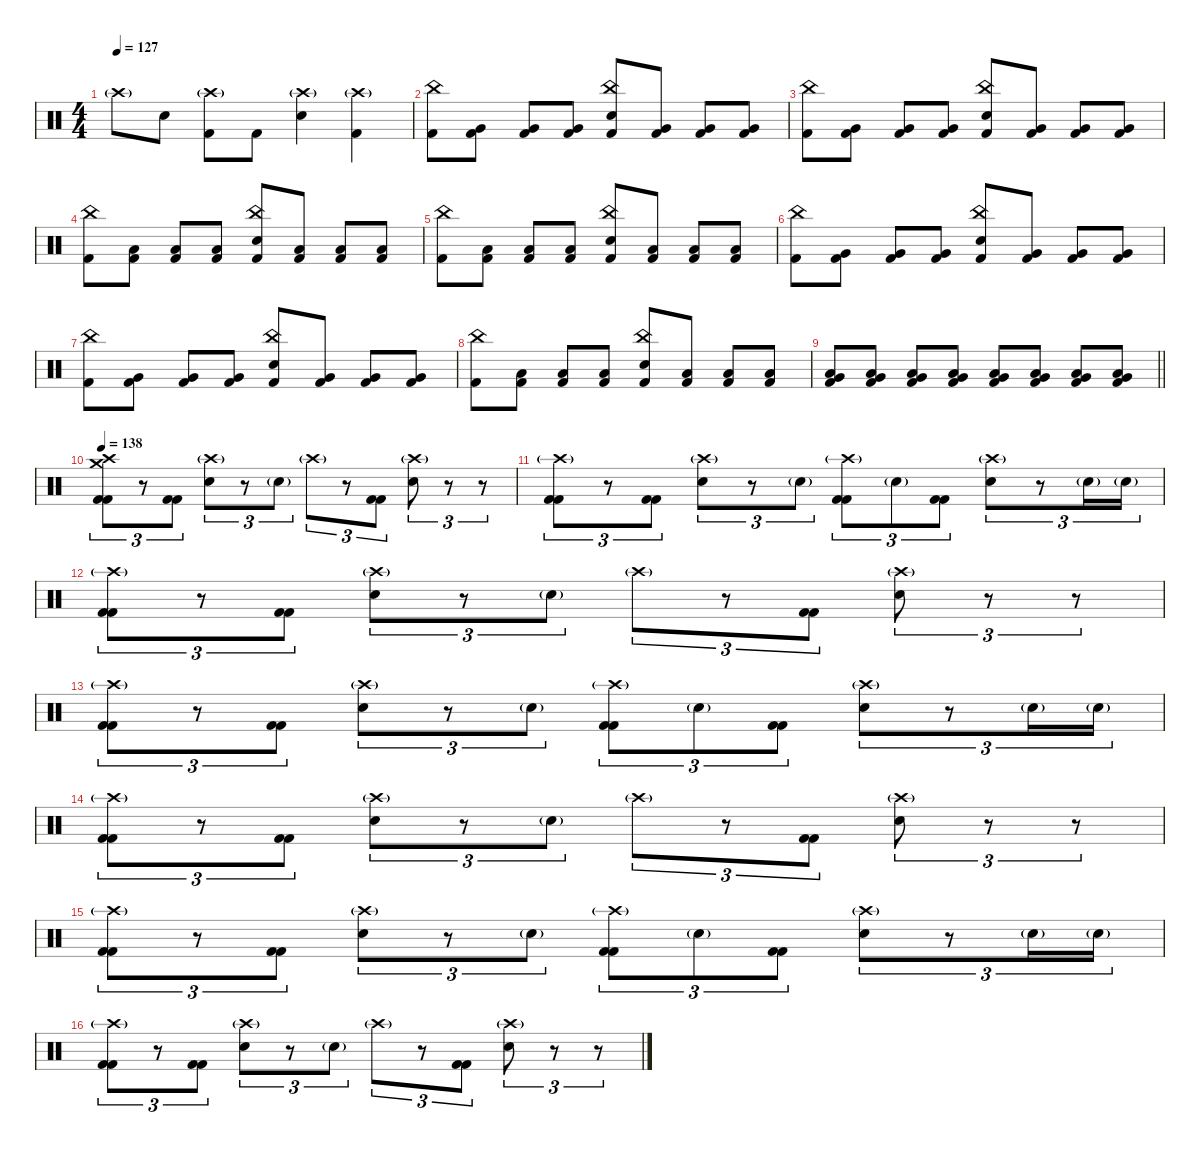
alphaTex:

\defaultSystemsLayout 4
\hideDynamics
\bracketExtendMode nobrackets
\singleTrackTrackNamePolicy hidden
\multiTrackTrackNamePolicy hidden
\otherSystemsTrackNameOrientation horizontal
\track ("Gene Hoglan" "drm.") {instrument percussion}
\staff {score}
\articulation defaults
\ts (4 4)
\tempo 127
\clef neutral
\ks c "Crash high (hit)"{g}.8{dy mf beam Down} "Snare (hit) 2".8{dy f beam Down}
("Crash high (hit)"{g} "Kick (hit) 2").8{beam Down} "Kick (hit) 2".8{beam Down} ("Crash high (hit)"{g} "Snare (hit) 2").4{beam Down} ("Crash high (hit)"{g} "Kick (hit) 2").4{beam Down} |
("China (hit)" "Kick (hit) 2").8{beam Down} ("Very Low Tom (hit)" "Kick (hit) 2").8{beam Down} ("Very Low Tom (hit)" "Kick (hit) 2").8{beam Up} ("Very Low Tom (hit)" "Kick (hit) 2").8{beam Up} ("China (hit)" "Snare (hit) 2" "Kick (hit) 2").8{beam Up} ("Very Low Tom (hit)" "Kick (hit) 2").8{beam Up} ("Very Low Tom (hit)" "Kick (hit) 2").8{beam Up} ("Very Low Tom (hit)" "Kick (hit) 2").8{beam Up} |
("China (hit)" "Kick (hit) 2").8{beam Down} ("Very Low Tom (hit)" "Kick (hit) 2").8{beam Down} ("Very Low Tom (hit)" "Kick (hit) 2").8{beam Up} ("Very Low Tom (hit)" "Kick (hit) 2").8{beam Up} ("China (hit)" "Snare (hit) 2" "Kick (hit) 2").8{beam Up} ("Very Low Tom (hit)" "Kick (hit) 2").8{beam Up} ("Very Low Tom (hit)" "Kick (hit) 2").8{beam Up} ("Very Low Tom (hit)" "Kick (hit) 2").8{beam Up} |
("China (hit)" "Kick (hit) 2").8{beam Down} ("Low Floor Tom (hit)" "Kick (hit) 2").8{beam Down} ("Low Floor Tom (hit)" "Kick (hit) 2").8{beam Up} ("Low Floor Tom (hit)" "Kick (hit) 2").8{beam Up} ("China (hit)" "Snare (hit) 2" "Kick (hit) 2").8{beam Up} ("Low Floor Tom (hit)" "Kick (hit) 2").8{beam Up} ("Low Floor Tom (hit)" "Kick (hit) 2").8{beam Up} ("Low Floor Tom (hit)" "Kick (hit) 2").8{beam Up} |
("China (hit)" "Kick (hit) 2").8{beam Down} ("Low Floor Tom (hit)" "Kick (hit) 2").8{beam Down} ("Low Floor Tom (hit)" "Kick (hit) 2").8{beam Up} ("Low Floor Tom (hit)" "Kick (hit) 2").8{beam Up} ("China (hit)" "Snare (hit) 2" "Kick (hit) 2").8{beam Up} ("Low Floor Tom (hit)" "Kick (hit) 2").8{beam Up} ("Low Floor Tom (hit)" "Kick (hit) 2").8{beam Up} ("Low Floor Tom (hit)" "Kick (hit) 2").8{beam Up} |
("China (hit)" "Kick (hit) 2").8{beam Down} ("Very Low Tom (hit)" "Kick (hit) 2").8{beam Down} ("Very Low Tom (hit)" "Kick (hit) 2").8{beam Up} ("Very Low Tom (hit)" "Kick (hit) 2").8{beam Up} ("China (hit)" "Snare (hit) 2" "Kick (hit) 2").8{beam Up} ("Very Low Tom (hit)" "Kick (hit) 2").8{beam Up} ("Very Low Tom (hit)" "Kick (hit) 2").8{beam Up} ("Very Low Tom (hit)" "Kick (hit) 2").8{beam Up} |
("China (hit)" "Kick (hit) 2").8{beam Down} ("Very Low Tom (hit)" "Kick (hit) 2").8{beam Down} ("Very Low Tom (hit)" "Kick (hit) 2").8{beam Up} ("Very Low Tom (hit)" "Kick (hit) 2").8{beam Up} ("China (hit)" "Snare (hit) 2" "Kick (hit) 2").8{beam Up} ("Very Low Tom (hit)" "Kick (hit) 2").8{beam Up} ("Very Low Tom (hit)" "Kick (hit) 2").8{beam Up} ("Very Low Tom (hit)" "Kick (hit) 2").8{beam Up} |
("China (hit)" "Kick (hit) 2").8{beam Down} ("Low Floor Tom (hit)" "Kick (hit) 2").8{beam Down} ("Low Floor Tom (hit)" "Kick (hit) 2").8{beam Up} ("Low Floor Tom (hit)" "Kick (hit) 2").8{beam Up} ("China (hit)" "Snare (hit) 2" "Kick (hit) 2").8{beam Up} ("Low Floor Tom (hit)" "Kick (hit) 2").8{beam Up} ("Low Floor Tom (hit)" "Kick (hit) 2").8{beam Up} ("Low Floor Tom (hit)" "Kick (hit) 2").8{beam Up} |
\barLineRight lightlight
("Very Low Tom (hit)" "Low Floor Tom (hit)" "Kick (hit) 2").8{beam Up} ("Very Low Tom (hit)" "Low Floor Tom (hit)" "Kick (hit) 2").8{beam Up} ("Very Low Tom (hit)" "Low Floor Tom (hit)" "Kick (hit) 2").8{beam Up} ("Very Low Tom (hit)" "Low Floor Tom (hit)" "Kick (hit) 2").8{beam Up} ("Very Low Tom (hit)" "Low Floor Tom (hit)" "Kick (hit) 2").8{beam Up} ("Very Low Tom (hit)" "Low Floor Tom (hit)" "Kick (hit) 2").8{beam Up} ("Very Low Tom (hit)" "Low Floor Tom (hit)" "Kick (hit) 2").8{beam Up} ("Very Low Tom (hit)" "Low Floor Tom (hit)" "Kick (hit) 2").8{beam Up} |
\tempo 138
("Crash high (hit)" "Crash medium (hit)" "Kick (hit) 2" "Kick (hit) 2").8{tu (3 2) beam Down} r.8{tu (3 2) beam Down} ("Kick (hit) 2" "Kick (hit) 2").8{tu (3 2) beam Down} ("Crash high (hit)"{g} "Snare (hit) 2").8{tu (3 2) beam Down} r.8{tu (3 2) beam Down} "Snare (hit) 2"{g}.8{tu (3 2) dy mf beam Down} "Crash high (hit)"{g}.8{tu (3 2) beam Down} r.8{tu (3 2) beam Down} ("Kick (hit) 2" "Kick (hit) 2").8{tu (3 2) dy f beam Down} ("Crash high (hit)"{g} "Snare (hit) 2").8{tu (3 2) beam Down} r.8{tu (3 2) beam Down} r.8{tu (3 2) beam Down} |
("Crash high (hit)"{g} "Kick (hit) 2" "Kick (hit) 2").8{tu (3 2) beam Down} r.8{tu (3 2) beam Down} ("Kick (hit) 2" "Kick (hit) 2").8{tu (3 2) beam Down} ("Crash high (hit)"{g} "Snare (hit) 2").8{tu (3 2) beam Down} r.8{tu (3 2) beam Down} "Snare (hit) 2"{g}.8{tu (3 2) dy mf beam Down} ("Crash high (hit)"{g} "Kick (hit) 2" "Kick (hit) 2").8{tu (3 2) dy f beam Down} "Snare (hit) 2"{g}.8{tu (3 2) dy mf beam Down} ("Kick (hit) 2" "Kick (hit) 2").8{tu (3 2) dy f beam Down} ("Crash high (hit)"{g} "Snare (hit) 2").8{tu (3 2) beam Down} r.8{tu (3 2) beam Down} "Snare (hit) 2"{g}.16{tu (3 2) dy mf beam Down} "Snare (hit) 2"{g}.16{tu (3 2) beam Down} |
("Crash high (hit)"{g} "Kick (hit) 2" "Kick (hit) 2").8{tu (3 2) dy f beam Down} r.8{tu (3 2) beam Down} ("Kick (hit) 2" "Kick (hit) 2").8{tu (3 2) beam Down} ("Crash high (hit)"{g} "Snare (hit) 2").8{tu (3 2) beam Down} r.8{tu (3 2) beam Down} "Snare (hit) 2"{g}.8{tu (3 2) dy mf beam Down} "Crash high (hit)"{g}.8{tu (3 2) beam Down} r.8{tu (3 2) beam Down} ("Kick (hit) 2" "Kick (hit) 2").8{tu (3 2) dy f beam Down} ("Crash high (hit)"{g} "Snare (hit) 2").8{tu (3 2) beam Down} r.8{tu (3 2) beam Down} r.8{tu (3 2) beam Down} |
("Crash high (hit)"{g} "Kick (hit) 2" "Kick (hit) 2").8{tu (3 2) beam Down} r.8{tu (3 2) beam Down} ("Kick (hit) 2" "Kick (hit) 2").8{tu (3 2) beam Down} ("Crash high (hit)"{g} "Snare (hit) 2").8{tu (3 2) beam Down} r.8{tu (3 2) beam Down} "Snare (hit) 2"{g}.8{tu (3 2) dy mf beam Down} ("Crash high (hit)"{g} "Kick (hit) 2" "Kick (hit) 2").8{tu (3 2) dy f beam Down} "Snare (hit) 2"{g}.8{tu (3 2) dy mf beam Down} ("Kick (hit) 2" "Kick (hit) 2").8{tu (3 2) dy f beam Down} ("Crash high (hit)"{g} "Snare (hit) 2").8{tu (3 2) beam Down} r.8{tu (3 2) beam Down} "Snare (hit) 2"{g}.16{tu (3 2) dy mf beam Down} "Snare (hit) 2"{g}.16{tu (3 2) beam Down} |
("Crash high (hit)"{g} "Kick (hit) 2" "Kick (hit) 2").8{tu (3 2) dy f beam Down} r.8{tu (3 2) beam Down} ("Kick (hit) 2" "Kick (hit) 2").8{tu (3 2) beam Down} ("Crash high (hit)"{g} "Snare (hit) 2").8{tu (3 2) beam Down} r.8{tu (3 2) beam Down} "Snare (hit) 2"{g}.8{tu (3 2) dy mf beam Down} "Crash high (hit)"{g}.8{tu (3 2) beam Down} r.8{tu (3 2) beam Down} ("Kick (hit) 2" "Kick (hit) 2").8{tu (3 2) dy f beam Down} ("Crash high (hit)"{g} "Snare (hit) 2").8{tu (3 2) beam Down} r.8{tu (3 2) beam Down} r.8{tu (3 2) beam Down} |
("Crash high (hit)"{g} "Kick (hit) 2" "Kick (hit) 2").8{tu (3 2) beam Down} r.8{tu (3 2) beam Down} ("Kick (hit) 2" "Kick (hit) 2").8{tu (3 2) beam Down} ("Crash high (hit)"{g} "Snare (hit) 2").8{tu (3 2) beam Down} r.8{tu (3 2) beam Down} "Snare (hit) 2"{g}.8{tu (3 2) dy mf beam Down} ("Crash high (hit)"{g} "Kick (hit) 2" "Kick (hit) 2").8{tu (3 2) dy f beam Down} "Snare (hit) 2"{g}.8{tu (3 2) dy mf beam Down} ("Kick (hit) 2" "Kick (hit) 2").8{tu (3 2) dy f beam Down} ("Crash high (hit)"{g} "Snare (hit) 2").8{tu (3 2) beam Down} r.8{tu (3 2) beam Down} "Snare (hit) 2"{g}.16{tu (3 2) dy mf beam Down} "Snare (hit) 2"{g}.16{tu (3 2) beam Down} |
("Crash high (hit)"{g} "Kick (hit) 2" "Kick (hit) 2").8{tu (3 2) dy f beam Down} r.8{tu (3 2) beam Down} ("Kick (hit) 2" "Kick (hit) 2").8{tu (3 2) beam Down} ("Crash high (hit)"{g} "Snare (hit) 2").8{tu (3 2) beam Down} r.8{tu (3 2) beam Down} "Snare (hit) 2"{g}.8{tu (3 2) dy mf beam Down} "Crash high (hit)"{g}.8{tu (3 2) beam Down} r.8{tu (3 2) beam Down} ("Kick (hit) 2" "Kick (hit) 2").8{tu (3 2) dy f beam Down} ("Crash high (hit)"{g} "Snare (hit) 2").8{tu (3 2) beam Down} r.8{tu (3 2) beam Down} r.8{tu (3 2) beam Down}
